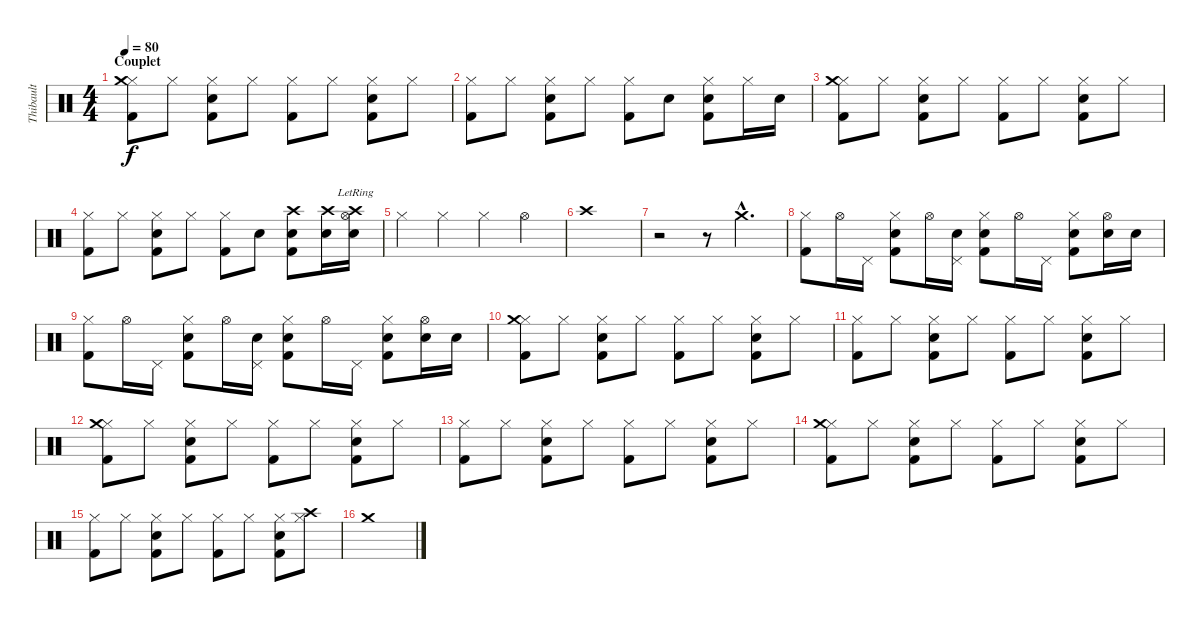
\track ("Thibault" "Thibault") {instrument percussion}
\staff {score}
\articulation defaults
\ts (4 4)
\section ("" "Couplet")
\tempo 80
\clef neutral
\ks c
("Hi-Hat (closed)" "Crash medium (hit)" "Kick (hit) 2").8{dy f volume 10} "Hi-Hat (closed)".8 ("Hi-Hat (closed)" "Snare (hit) 2" "Kick (hit) 2").8 "Hi-Hat (closed)".8 ("Hi-Hat (closed)" "Kick (hit) 2").8 "Hi-Hat (closed)".8 ("Hi-Hat (closed)" "Snare (hit) 2" "Kick (hit) 2").8 "Hi-Hat (closed)".8 |
("Hi-Hat (closed)" "Kick (hit) 2").8 "Hi-Hat (closed)".8 ("Hi-Hat (closed)" "Snare (hit) 2" "Kick (hit) 2").8 "Hi-Hat (closed)".8 ("Hi-Hat (closed)" "Kick (hit) 2").8 "Snare (hit) 2".8 ("Hi-Hat (closed)" "Snare (hit) 2" "Kick (hit) 2").8 "Hi-Hat (closed)".16 "Snare (hit) 2".16 |
("Hi-Hat (closed)" "Crash medium (hit)" "Kick (hit) 2").8 "Hi-Hat (closed)".8 ("Hi-Hat (closed)" "Snare (hit) 2" "Kick (hit) 2").8 "Hi-Hat (closed)".8 ("Hi-Hat (closed)" "Kick (hit) 2").8 "Hi-Hat (closed)".8 ("Hi-Hat (closed)" "Snare (hit) 2" "Kick (hit) 2").8 "Hi-Hat (closed)".8 |
("Hi-Hat (closed)" "Kick (hit) 2").8 "Hi-Hat (closed)".8 ("Hi-Hat (closed)" "Snare (hit) 2" "Kick (hit) 2").8 "Hi-Hat (closed)".8 ("Hi-Hat (closed)" "Kick (hit) 2").8 "Snare (hit) 2".8 ("Crash high (hit)" "Snare (hit) 2" "Kick (hit) 2").8 ("Crash high (hit)" "Snare (hit) 2").16 ("Hi-Hat (open)" "Crash high (hit)"{lr} "Snare (hit) 2").16 |
"Hi-Hat (closed)".4 "Hi-Hat (closed)".4 "Hi-Hat (closed)".4 "Hi-Hat (open)".4 |
"Crash high (hit)".1 |
r.2 r.8 "Crash medium (hit)"{hac}.4{d} |
("Hi-Hat (closed)" "Kick (hit) 2").8 "Hi-Hat (open)".16 "Pedal Hi-Hat (hit)".16 ("Hi-Hat (closed)" "Snare (hit) 2" "Kick (hit) 2").8 "Hi-Hat (open)".16 ("Pedal Hi-Hat (hit)" "Snare (hit) 2").16 ("Hi-Hat (closed)" "Snare (hit) 2" "Kick (hit) 2").8 "Hi-Hat (open)".16 "Pedal Hi-Hat (hit)".16 ("Hi-Hat (closed)" "Snare (hit) 2" "Kick (hit) 2").8 ("Hi-Hat (open)" "Snare (hit) 2").16 "Snare (hit) 2".16 |
("Hi-Hat (closed)" "Kick (hit) 2").8 "Hi-Hat (open)".16 "Pedal Hi-Hat (hit)".16 ("Hi-Hat (closed)" "Snare (hit) 2" "Kick (hit) 2").8 "Hi-Hat (open)".16 ("Pedal Hi-Hat (hit)" "Snare (hit) 2").16 ("Hi-Hat (closed)" "Snare (hit) 2" "Kick (hit) 2").8 "Hi-Hat (open)".16 "Pedal Hi-Hat (hit)".16 ("Hi-Hat (closed)" "Snare (hit) 2" "Kick (hit) 2").8 ("Hi-Hat (open)" "Snare (hit) 2").16 "Snare (hit) 2".16 |
("Hi-Hat (closed)" "Crash medium (hit)" "Kick (hit) 2").8 "Hi-Hat (closed)".8 ("Hi-Hat (closed)" "Snare (hit) 2" "Kick (hit) 2").8 "Hi-Hat (closed)".8 ("Hi-Hat (closed)" "Kick (hit) 2").8 "Hi-Hat (closed)".8 ("Hi-Hat (closed)" "Snare (hit) 2" "Kick (hit) 2").8 "Hi-Hat (closed)".8 |
("Hi-Hat (closed)" "Kick (hit) 2").8 "Hi-Hat (closed)".8 ("Hi-Hat (closed)" "Snare (hit) 2" "Kick (hit) 2").8 "Hi-Hat (closed)".8 ("Hi-Hat (closed)" "Kick (hit) 2").8 "Hi-Hat (closed)".8 ("Hi-Hat (closed)" "Snare (hit) 2" "Kick (hit) 2").8 "Hi-Hat (closed)".8 |
("Hi-Hat (closed)" "Crash medium (hit)" "Kick (hit) 2").8 "Hi-Hat (closed)".8 ("Hi-Hat (closed)" "Snare (hit) 2" "Kick (hit) 2").8 "Hi-Hat (closed)".8 ("Hi-Hat (closed)" "Kick (hit) 2").8 "Hi-Hat (closed)".8 ("Hi-Hat (closed)" "Snare (hit) 2" "Kick (hit) 2").8 "Hi-Hat (closed)".8 |
("Hi-Hat (closed)" "Kick (hit) 2").8 "Hi-Hat (closed)".8 ("Hi-Hat (closed)" "Snare (hit) 2" "Kick (hit) 2").8 "Hi-Hat (closed)".8 ("Hi-Hat (closed)" "Kick (hit) 2").8 "Hi-Hat (closed)".8 ("Hi-Hat (closed)" "Snare (hit) 2" "Kick (hit) 2").8 "Hi-Hat (closed)".8 |
("Hi-Hat (closed)" "Crash medium (hit)" "Kick (hit) 2").8 "Hi-Hat (closed)".8 ("Hi-Hat (closed)" "Snare (hit) 2" "Kick (hit) 2").8 "Hi-Hat (closed)".8 ("Hi-Hat (closed)" "Kick (hit) 2").8 "Hi-Hat (closed)".8 ("Hi-Hat (closed)" "Snare (hit) 2" "Kick (hit) 2").8 "Hi-Hat (closed)".8 |
("Hi-Hat (closed)" "Kick (hit) 2").8 "Hi-Hat (closed)".8 ("Hi-Hat (closed)" "Snare (hit) 2" "Kick (hit) 2").8 "Hi-Hat (closed)".8 ("Hi-Hat (closed)" "Kick (hit) 2").8 "Hi-Hat (closed)".8 ("Hi-Hat (closed)" "Snare (hit) 2" "Kick (hit) 2").8 ("Hi-Hat (closed)" "Crash high (hit)").8 |
"Crash medium (hit)".1{volume 10}
